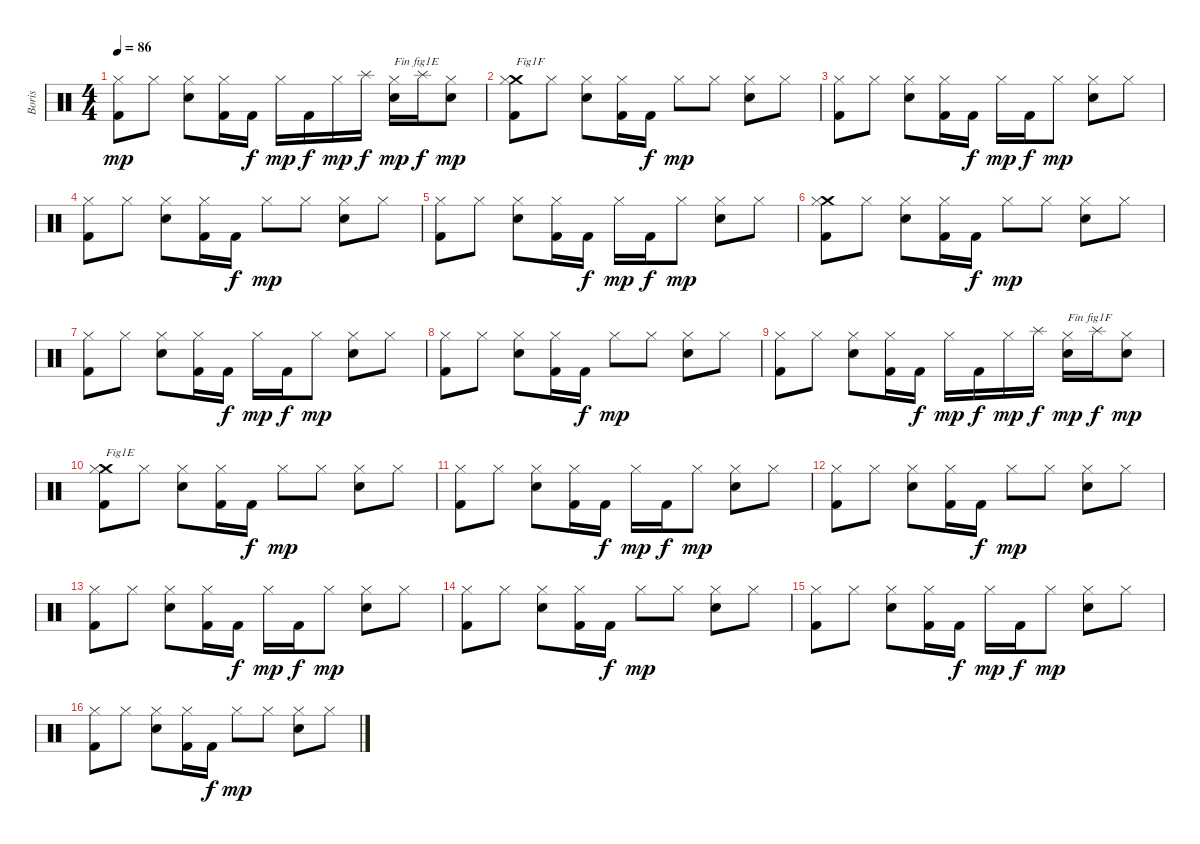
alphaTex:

\track ("Boris" "Boris") {instrument percussion}
\staff {score}
\articulation defaults
\ts (4 4)
\tempo 86
\clef neutral
\ks c
("Kick (hit) 2" "Hi-Hat (closed)").8{dy mp} "Hi-Hat (closed)".8 ("Electric Snare (hit)" "Hi-Hat (closed)").8 ("Kick (hit) 2" "Hi-Hat (closed)").16 "Kick (hit) 2".16{dy f} "Hi-Hat (closed)".16{dy mp} "Kick (hit) 2".16{dy f} "Hi-Hat (closed)".16{dy mp} "Splash (hit)".16{dy f} ("Electric Snare (hit)" "Hi-Hat (closed)").16{txt "Fin fig1E" dy mp} "Splash (hit)".16{dy f} ("Electric Snare (hit)" "Hi-Hat (closed)").8{dy mp} |
("Kick (hit) 2" "Crash medium (hit)" "Hi-Hat (closed)").8{txt "Fig1F"} "Hi-Hat (closed)".8 ("Electric Snare (hit)" "Hi-Hat (closed)").8 ("Kick (hit) 2" "Hi-Hat (closed)").16 "Kick (hit) 2".16{dy f} "Hi-Hat (closed)".8{dy mp} "Hi-Hat (closed)".8 ("Electric Snare (hit)" "Hi-Hat (closed)").8 "Hi-Hat (closed)".8 |
("Kick (hit) 2" "Hi-Hat (closed)").8 "Hi-Hat (closed)".8 ("Electric Snare (hit)" "Hi-Hat (closed)").8 ("Kick (hit) 2" "Hi-Hat (closed)").16 "Kick (hit) 2".16{dy f} "Hi-Hat (closed)".16{dy mp} "Kick (hit) 2".16{dy f} "Hi-Hat (closed)".8{dy mp} ("Electric Snare (hit)" "Hi-Hat (closed)").8 "Hi-Hat (closed)".8 |
("Kick (hit) 2" "Hi-Hat (closed)").8 "Hi-Hat (closed)".8 ("Electric Snare (hit)" "Hi-Hat (closed)").8 ("Kick (hit) 2" "Hi-Hat (closed)").16 "Kick (hit) 2".16{dy f} "Hi-Hat (closed)".8{dy mp} "Hi-Hat (closed)".8 ("Electric Snare (hit)" "Hi-Hat (closed)").8 "Hi-Hat (closed)".8 |
("Kick (hit) 2" "Hi-Hat (closed)").8 "Hi-Hat (closed)".8 ("Electric Snare (hit)" "Hi-Hat (closed)").8 ("Kick (hit) 2" "Hi-Hat (closed)").16 "Kick (hit) 2".16{dy f} "Hi-Hat (closed)".16{dy mp} "Kick (hit) 2".16{dy f} "Hi-Hat (closed)".8{dy mp} ("Electric Snare (hit)" "Hi-Hat (closed)").8 "Hi-Hat (closed)".8 |
("Kick (hit) 2" "Crash medium (hit)" "Hi-Hat (closed)").8 "Hi-Hat (closed)".8 ("Electric Snare (hit)" "Hi-Hat (closed)").8 ("Kick (hit) 2" "Hi-Hat (closed)").16 "Kick (hit) 2".16{dy f} "Hi-Hat (closed)".8{dy mp} "Hi-Hat (closed)".8 ("Electric Snare (hit)" "Hi-Hat (closed)").8 "Hi-Hat (closed)".8 |
("Kick (hit) 2" "Hi-Hat (closed)").8 "Hi-Hat (closed)".8 ("Electric Snare (hit)" "Hi-Hat (closed)").8 ("Kick (hit) 2" "Hi-Hat (closed)").16 "Kick (hit) 2".16{dy f} "Hi-Hat (closed)".16{dy mp} "Kick (hit) 2".16{dy f} "Hi-Hat (closed)".8{dy mp} ("Electric Snare (hit)" "Hi-Hat (closed)").8 "Hi-Hat (closed)".8 |
("Kick (hit) 2" "Hi-Hat (closed)").8 "Hi-Hat (closed)".8 ("Electric Snare (hit)" "Hi-Hat (closed)").8 ("Kick (hit) 2" "Hi-Hat (closed)").16 "Kick (hit) 2".16{dy f} "Hi-Hat (closed)".8{dy mp} "Hi-Hat (closed)".8 ("Electric Snare (hit)" "Hi-Hat (closed)").8 "Hi-Hat (closed)".8 |
("Kick (hit) 2" "Hi-Hat (closed)").8 "Hi-Hat (closed)".8 ("Electric Snare (hit)" "Hi-Hat (closed)").8 ("Kick (hit) 2" "Hi-Hat (closed)").16 "Kick (hit) 2".16{dy f} "Hi-Hat (closed)".16{dy mp} "Kick (hit) 2".16{dy f} "Hi-Hat (closed)".16{dy mp} "Splash (hit)".16{dy f} ("Electric Snare (hit)" "Hi-Hat (closed)").16{txt "Fin fig1F" dy mp} "Splash (hit)".16{dy f} ("Electric Snare (hit)" "Hi-Hat (closed)").8{dy mp} |
("Kick (hit) 2" "Crash medium (hit)" "Hi-Hat (closed)").8{txt "Fig1E"} "Hi-Hat (closed)".8 ("Electric Snare (hit)" "Hi-Hat (closed)").8 ("Kick (hit) 2" "Hi-Hat (closed)").16 "Kick (hit) 2".16{dy f} "Hi-Hat (closed)".8{dy mp} "Hi-Hat (closed)".8 ("Electric Snare (hit)" "Hi-Hat (closed)").8 "Hi-Hat (closed)".8 |
("Kick (hit) 2" "Hi-Hat (closed)").8 "Hi-Hat (closed)".8 ("Electric Snare (hit)" "Hi-Hat (closed)").8 ("Kick (hit) 2" "Hi-Hat (closed)").16 "Kick (hit) 2".16{dy f} "Hi-Hat (closed)".16{dy mp} "Kick (hit) 2".16{dy f} "Hi-Hat (closed)".8{dy mp} ("Electric Snare (hit)" "Hi-Hat (closed)").8 "Hi-Hat (closed)".8 |
("Kick (hit) 2" "Hi-Hat (closed)").8 "Hi-Hat (closed)".8 ("Electric Snare (hit)" "Hi-Hat (closed)").8 ("Kick (hit) 2" "Hi-Hat (closed)").16 "Kick (hit) 2".16{dy f} "Hi-Hat (closed)".8{dy mp} "Hi-Hat (closed)".8 ("Electric Snare (hit)" "Hi-Hat (closed)").8 "Hi-Hat (closed)".8 |
("Kick (hit) 2" "Hi-Hat (closed)").8 "Hi-Hat (closed)".8 ("Electric Snare (hit)" "Hi-Hat (closed)").8 ("Kick (hit) 2" "Hi-Hat (closed)").16 "Kick (hit) 2".16{dy f} "Hi-Hat (closed)".16{dy mp} "Kick (hit) 2".16{dy f} "Hi-Hat (closed)".8{dy mp} ("Electric Snare (hit)" "Hi-Hat (closed)").8 "Hi-Hat (closed)".8 |
("Kick (hit) 2" "Hi-Hat (closed)").8 "Hi-Hat (closed)".8 ("Electric Snare (hit)" "Hi-Hat (closed)").8 ("Kick (hit) 2" "Hi-Hat (closed)").16 "Kick (hit) 2".16{dy f} "Hi-Hat (closed)".8{dy mp} "Hi-Hat (closed)".8 ("Electric Snare (hit)" "Hi-Hat (closed)").8 "Hi-Hat (closed)".8 |
("Kick (hit) 2" "Hi-Hat (closed)").8 "Hi-Hat (closed)".8 ("Electric Snare (hit)" "Hi-Hat (closed)").8 ("Kick (hit) 2" "Hi-Hat (closed)").16 "Kick (hit) 2".16{dy f} "Hi-Hat (closed)".16{dy mp} "Kick (hit) 2".16{dy f} "Hi-Hat (closed)".8{dy mp} ("Electric Snare (hit)" "Hi-Hat (closed)").8 "Hi-Hat (closed)".8 |
("Kick (hit) 2" "Hi-Hat (closed)").8 "Hi-Hat (closed)".8 ("Electric Snare (hit)" "Hi-Hat (closed)").8 ("Kick (hit) 2" "Hi-Hat (closed)").16 "Kick (hit) 2".16{dy f} "Hi-Hat (closed)".8{dy mp} "Hi-Hat (closed)".8 ("Electric Snare (hit)" "Hi-Hat (closed)").8 "Hi-Hat (closed)".8
